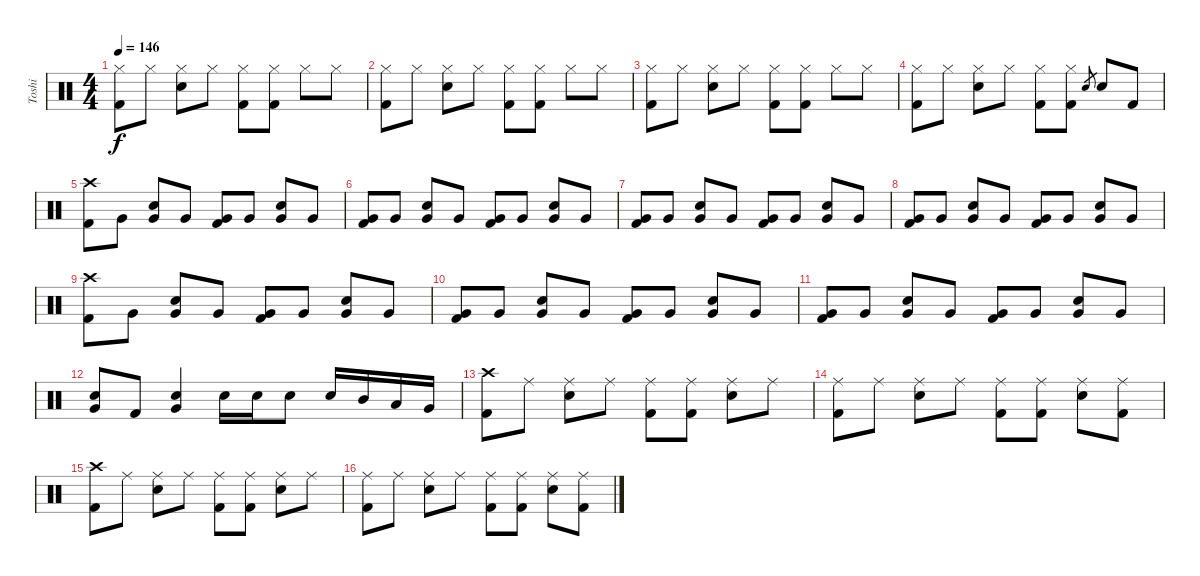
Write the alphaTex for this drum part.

\track ("Toshi" "Toshi") {instrument percussion}
\staff {score}
\articulation defaults
\ts (4 4)
\tempo 146
\clef neutral
\ks c
("Hi-Hat (closed)" "Kick (hit) 2").8{dy f} "Hi-Hat (closed)".8 ("Hi-Hat (closed)" "Electric Snare (hit)").8 "Hi-Hat (closed)".8 ("Hi-Hat (closed)" "Kick (hit) 2").8 ("Hi-Hat (closed)" "Kick (hit) 2").8 "Hi-Hat (closed)".8 "Hi-Hat (closed)".8 |
("Hi-Hat (closed)" "Kick (hit) 2").8 "Hi-Hat (closed)".8 ("Hi-Hat (closed)" "Electric Snare (hit)").8 "Hi-Hat (closed)".8 ("Hi-Hat (closed)" "Kick (hit) 2").8 ("Hi-Hat (closed)" "Kick (hit) 2").8 "Hi-Hat (closed)".8 "Hi-Hat (closed)".8 |
("Hi-Hat (closed)" "Kick (hit) 2").8 "Hi-Hat (closed)".8 ("Hi-Hat (closed)" "Electric Snare (hit)").8 "Hi-Hat (closed)".8 ("Hi-Hat (closed)" "Kick (hit) 2").8 ("Hi-Hat (closed)" "Kick (hit) 2").8 "Hi-Hat (closed)".8 "Hi-Hat (closed)".8 |
("Hi-Hat (closed)" "Kick (hit) 2").8 "Hi-Hat (closed)".8 ("Hi-Hat (closed)" "Electric Snare (hit)").8 "Hi-Hat (closed)".8 ("Hi-Hat (closed)" "Kick (hit) 2").8 ("Hi-Hat (closed)" "Kick (hit) 2").8 "Electric Snare (hit)".8{gr} "Electric Snare (hit)".8 "Kick (hit) 2".8 |
("Crash high (hit)" "Kick (hit) 2").8 "Very Low Tom (hit)".8 ("Very Low Tom (hit)" "Electric Snare (hit)").8 "Very Low Tom (hit)".8 ("Very Low Tom (hit)" "Kick (hit) 2").8 "Very Low Tom (hit)".8 ("Very Low Tom (hit)" "Electric Snare (hit)").8 "Very Low Tom (hit)".8 |
("Very Low Tom (hit)" "Kick (hit) 2").8 "Very Low Tom (hit)".8 ("Very Low Tom (hit)" "Electric Snare (hit)").8 "Very Low Tom (hit)".8 ("Very Low Tom (hit)" "Kick (hit) 2").8 "Very Low Tom (hit)".8 ("Very Low Tom (hit)" "Electric Snare (hit)").8 "Very Low Tom (hit)".8 |
("Very Low Tom (hit)" "Kick (hit) 2").8 "Very Low Tom (hit)".8 ("Very Low Tom (hit)" "Electric Snare (hit)").8 "Very Low Tom (hit)".8 ("Very Low Tom (hit)" "Kick (hit) 2").8 "Very Low Tom (hit)".8 ("Very Low Tom (hit)" "Electric Snare (hit)").8 "Very Low Tom (hit)".8 |
("Very Low Tom (hit)" "Kick (hit) 2").8 "Very Low Tom (hit)".8 ("Very Low Tom (hit)" "Electric Snare (hit)").8 "Very Low Tom (hit)".8 ("Very Low Tom (hit)" "Kick (hit) 2").8 "Very Low Tom (hit)".8 ("Very Low Tom (hit)" "Electric Snare (hit)").8 "Very Low Tom (hit)".8 |
("Crash high (hit)" "Kick (hit) 2").8 "Very Low Tom (hit)".8 ("Very Low Tom (hit)" "Electric Snare (hit)").8 "Very Low Tom (hit)".8 ("Very Low Tom (hit)" "Kick (hit) 2").8 "Very Low Tom (hit)".8 ("Very Low Tom (hit)" "Electric Snare (hit)").8 "Very Low Tom (hit)".8 |
("Very Low Tom (hit)" "Kick (hit) 2").8 "Very Low Tom (hit)".8 ("Very Low Tom (hit)" "Electric Snare (hit)").8 "Very Low Tom (hit)".8 ("Very Low Tom (hit)" "Kick (hit) 2").8 "Very Low Tom (hit)".8 ("Very Low Tom (hit)" "Electric Snare (hit)").8 "Very Low Tom (hit)".8 |
("Very Low Tom (hit)" "Kick (hit) 2").8 "Very Low Tom (hit)".8 ("Very Low Tom (hit)" "Electric Snare (hit)").8 "Very Low Tom (hit)".8 ("Very Low Tom (hit)" "Kick (hit) 2").8 "Very Low Tom (hit)".8 ("Very Low Tom (hit)" "Electric Snare (hit)").8 "Very Low Tom (hit)".8 |
("Very Low Tom (hit)" "Electric Snare (hit)").8 "Kick (hit) 2".8 ("Very Low Tom (hit)" "Electric Snare (hit)").4 "Electric Snare (hit)".16 "Electric Snare (hit)".16 "Electric Snare (hit)".8 "Electric Snare (hit)".16 "Mid Tom (hit)".16 "Low Tom (hit)".16 "Very Low Tom (hit)".16 |
("Crash high (hit)" "Kick (hit) 2").8 "Ride (middle)".8 ("Ride (middle)" "Electric Snare (hit)").8 "Ride (middle)".8 ("Ride (middle)" "Kick (hit) 2").8 ("Ride (middle)" "Kick (hit) 2").8 ("Ride (middle)" "Electric Snare (hit)").8 "Ride (middle)".8 |
("Ride (middle)" "Kick (hit) 2").8 "Ride (middle)".8 ("Ride (middle)" "Electric Snare (hit)").8 "Ride (middle)".8 ("Ride (middle)" "Kick (hit) 2").8 ("Ride (middle)" "Kick (hit) 2").8 ("Ride (middle)" "Electric Snare (hit)").8 ("Ride (middle)" "Kick (hit) 2").8 |
("Crash high (hit)" "Kick (hit) 2").8 "Ride (middle)".8 ("Ride (middle)" "Electric Snare (hit)").8 "Ride (middle)".8 ("Ride (middle)" "Kick (hit) 2").8 ("Ride (middle)" "Kick (hit) 2").8 ("Ride (middle)" "Electric Snare (hit)").8 "Ride (middle)".8 |
("Ride (middle)" "Kick (hit) 2").8 "Ride (middle)".8 ("Ride (middle)" "Electric Snare (hit)").8 "Ride (middle)".8 ("Ride (middle)" "Kick (hit) 2").8 ("Ride (middle)" "Kick (hit) 2").8 ("Ride (middle)" "Electric Snare (hit)").8 ("Ride (middle)" "Kick (hit) 2").8
